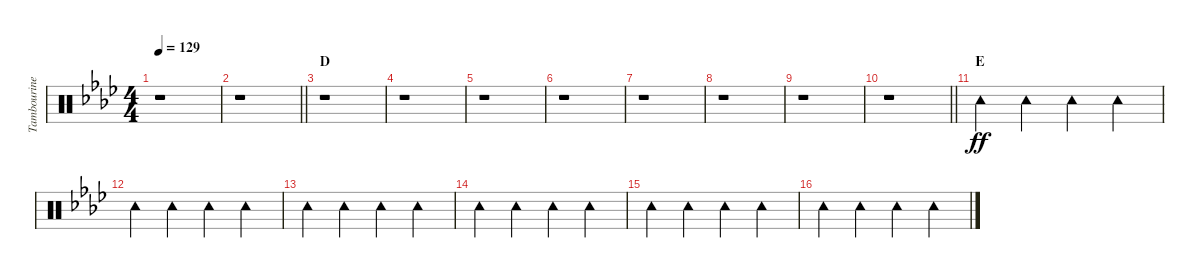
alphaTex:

\track ("Tambourine" "Tambourine") {instrument percussion}
\staff {score}
\articulation defaults
\ts (4 4)
\tempo 129
\clef neutral
\ks ab
r.1{dy ff} |
\barLineRight lightlight
r.1 |
\section ("" "D")
r.1 |
r.1 |
r.1 |
r.1 |
r.1 |
r.1 |
r.1 |
\barLineRight lightlight
r.1 |
\section ("" "E")
"Tambourine (hit)".4 "Tambourine (hit)".4 "Tambourine (hit)".4 "Tambourine (hit)".4 |
"Tambourine (hit)".4 "Tambourine (hit)".4 "Tambourine (hit)".4 "Tambourine (hit)".4 |
"Tambourine (hit)".4 "Tambourine (hit)".4 "Tambourine (hit)".4 "Tambourine (hit)".4 |
"Tambourine (hit)".4 "Tambourine (hit)".4 "Tambourine (hit)".4 "Tambourine (hit)".4 |
"Tambourine (hit)".4 "Tambourine (hit)".4 "Tambourine (hit)".4 "Tambourine (hit)".4 |
"Tambourine (hit)".4 "Tambourine (hit)".4 "Tambourine (hit)".4 "Tambourine (hit)".4
